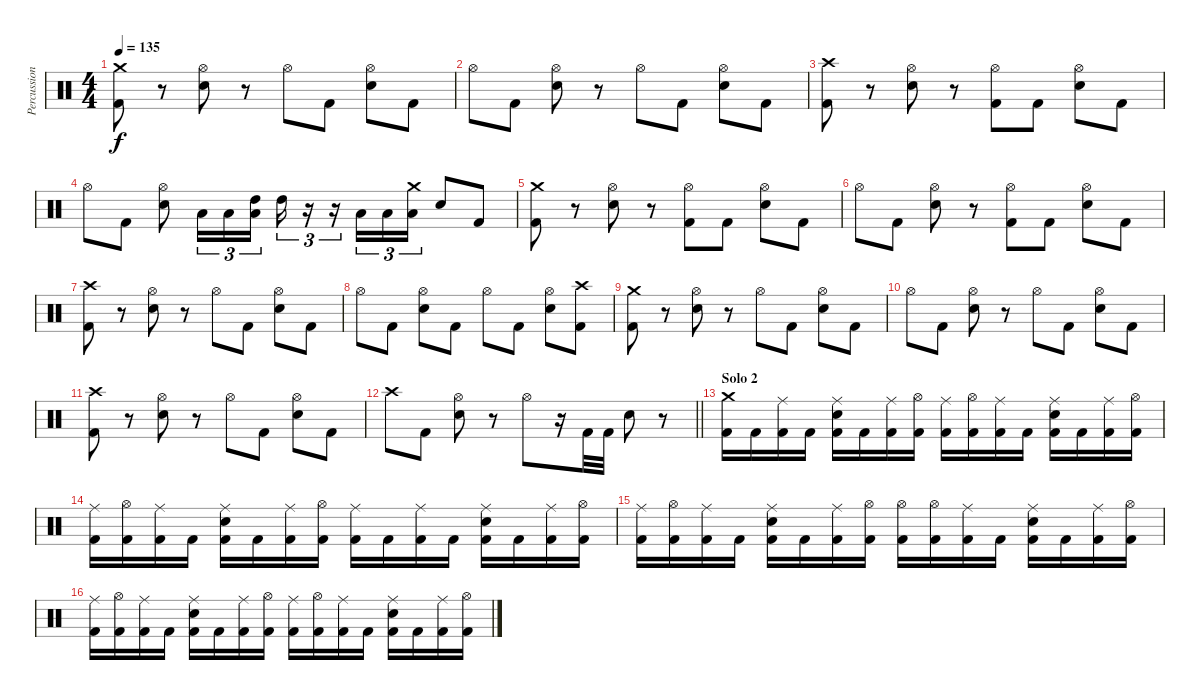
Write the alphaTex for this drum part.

\track ("Percussion" "Percussion") {instrument percussion}
\staff {score}
\articulation defaults
\ts (4 4)
\tempo 135
\clef neutral
\ks c
("Crash medium (hit)" "Kick (hit) 2").8{dy f} r.8 ("Hi-Hat (open)" "Electric Snare (hit)").8 r.8 "Hi-Hat (open)".8 "Kick (hit) 2".8 ("Hi-Hat (open)" "Electric Snare (hit)").8 "Kick (hit) 2".8 |
"Hi-Hat (open)".8 "Kick (hit) 2".8 ("Hi-Hat (open)" "Electric Snare (hit)").8 r.8 "Hi-Hat (open)".8 "Kick (hit) 2".8 ("Hi-Hat (open)" "Electric Snare (hit)").8 "Kick (hit) 2".8 |
("Crash high (hit)" "Kick (hit) 2").8 r.8 ("Hi-Hat (open)" "Electric Snare (hit)").8 r.8 ("Hi-Hat (open)" "Kick (hit) 2").8 "Kick (hit) 2".8 ("Hi-Hat (open)" "Electric Snare (hit)").8 "Kick (hit) 2".8 |
"Hi-Hat (open)".8 "Kick (hit) 2".8 ("Hi-Hat (open)" "Electric Snare (hit)").8 "Low Tom (hit)".16{tu (3 2)} "Low Tom (hit)".16{tu (3 2)} ("High Tom (hit)" "Low Tom (hit)").16{tu (3 2)} "High Tom (hit)".16{tu (3 2)} r.16{tu (3 2)} r.16{tu (3 2)} "Low Tom (hit)".16{tu (3 2)} "Low Tom (hit)".16{tu (3 2)} ("Crash medium (hit)" "Low Tom (hit)").16{tu (3 2)} "Electric Snare (hit)".8 "Kick (hit) 2".8 |
("Crash medium (hit)" "Kick (hit) 2").8 r.8 ("Hi-Hat (open)" "Electric Snare (hit)").8 r.8 ("Hi-Hat (open)" "Kick (hit) 2").8 "Kick (hit) 2".8 ("Hi-Hat (open)" "Electric Snare (hit)").8 "Kick (hit) 2".8 |
"Hi-Hat (open)".8 "Kick (hit) 2".8 ("Hi-Hat (open)" "Electric Snare (hit)").8 r.8 ("Hi-Hat (open)" "Kick (hit) 2").8 "Kick (hit) 2".8 ("Hi-Hat (open)" "Electric Snare (hit)").8 "Kick (hit) 2".8 |
("Crash high (hit)" "Kick (hit) 2").8 r.8 ("Hi-Hat (open)" "Electric Snare (hit)").8 r.8 "Hi-Hat (open)".8 "Kick (hit) 2".8 ("Hi-Hat (open)" "Electric Snare (hit)").8 "Kick (hit) 2".8 |
"Hi-Hat (open)".8 "Kick (hit) 2".8 ("Hi-Hat (open)" "Electric Snare (hit)").8 "Kick (hit) 2".8 "Hi-Hat (open)".8 "Kick (hit) 2".8 ("Hi-Hat (open)" "Electric Snare (hit)").8 ("Crash high (hit)" "Kick (hit) 2").8 |
("Crash medium (hit)" "Kick (hit) 2").8 r.8 ("Hi-Hat (open)" "Electric Snare (hit)").8 r.8 "Hi-Hat (open)".8 "Kick (hit) 2".8 ("Hi-Hat (open)" "Electric Snare (hit)").8 "Kick (hit) 2".8 |
"Hi-Hat (open)".8 "Kick (hit) 2".8 ("Hi-Hat (open)" "Electric Snare (hit)").8 r.8 "Hi-Hat (open)".8 "Kick (hit) 2".8 ("Hi-Hat (open)" "Electric Snare (hit)").8 "Kick (hit) 2".8 |
("Crash high (hit)" "Kick (hit) 2").8 r.8 ("Hi-Hat (open)" "Electric Snare (hit)").8 r.8 "Hi-Hat (open)".8 "Kick (hit) 2".8 ("Hi-Hat (open)" "Electric Snare (hit)").8 "Kick (hit) 2".8 |
\barLineRight lightlight "Crash high (hit)".8 "Kick (hit) 2".8
("Hi-Hat (open)" "Electric Snare (hit)").8 r.8 "Hi-Hat (open)".8 r.16 "Kick (hit) 2".32 "Kick (hit) 2".32 "Electric Snare (hit)".8 r.8 |
\section ("" "Solo 2")
("Crash medium (hit)" "Kick (hit) 2").16 "Kick (hit) 2".16 ("Ride (middle)" "Kick (hit) 2").16 "Kick (hit) 2".16 ("Ride (middle)" "Electric Snare (hit)" "Kick (hit) 2").16 "Kick (hit) 2".16 ("Ride (middle)" "Kick (hit) 2").16 ("Hi-Hat (open)" "Kick (hit) 2").16 ("Ride (middle)" "Kick (hit) 2").16 ("Hi-Hat (open)" "Kick (hit) 2").16 ("Ride (middle)" "Kick (hit) 2").16 "Kick (hit) 2".16 ("Ride (middle)" "Electric Snare (hit)" "Kick (hit) 2").16 "Kick (hit) 2".16 ("Ride (middle)" "Kick (hit) 2").16 ("Hi-Hat (open)" "Kick (hit) 2").16 |
("Ride (middle)" "Kick (hit) 2").16 ("Hi-Hat (open)" "Kick (hit) 2").16 ("Ride (middle)" "Kick (hit) 2").16 "Kick (hit) 2".16 ("Ride (middle)" "Electric Snare (hit)" "Kick (hit) 2").16 "Kick (hit) 2".16 ("Ride (middle)" "Kick (hit) 2").16 ("Hi-Hat (open)" "Kick (hit) 2").16 ("Ride (middle)" "Kick (hit) 2").16 "Kick (hit) 2".16 ("Ride (middle)" "Kick (hit) 2").16 "Kick (hit) 2".16 ("Ride (middle)" "Electric Snare (hit)" "Kick (hit) 2").16 "Kick (hit) 2".16 ("Ride (middle)" "Kick (hit) 2").16 ("Hi-Hat (open)" "Kick (hit) 2").16 |
("Ride (middle)" "Kick (hit) 2").16 ("Hi-Hat (open)" "Kick (hit) 2").16 ("Ride (middle)" "Kick (hit) 2").16 "Kick (hit) 2".16 ("Ride (middle)" "Electric Snare (hit)" "Kick (hit) 2").16 "Kick (hit) 2".16 ("Ride (middle)" "Kick (hit) 2").16 ("Hi-Hat (open)" "Kick (hit) 2").16 ("Hi-Hat (open)" "Kick (hit) 2").16 ("Hi-Hat (open)" "Kick (hit) 2").16 ("Ride (middle)" "Kick (hit) 2").16 "Kick (hit) 2".16 ("Ride (middle)" "Electric Snare (hit)" "Kick (hit) 2").16 "Kick (hit) 2".16 ("Ride (middle)" "Kick (hit) 2").16 ("Hi-Hat (open)" "Kick (hit) 2").16 |
("Ride (middle)" "Kick (hit) 2").16 ("Hi-Hat (open)" "Kick (hit) 2").16 ("Ride (middle)" "Kick (hit) 2").16 "Kick (hit) 2".16 ("Ride (middle)" "Electric Snare (hit)" "Kick (hit) 2").16 "Kick (hit) 2".16 ("Ride (middle)" "Kick (hit) 2").16 ("Hi-Hat (open)" "Kick (hit) 2").16 ("Ride (middle)" "Kick (hit) 2").16 ("Hi-Hat (open)" "Kick (hit) 2").16 ("Ride (middle)" "Kick (hit) 2").16 "Kick (hit) 2".16 ("Ride (middle)" "Electric Snare (hit)" "Kick (hit) 2").16 "Kick (hit) 2".16 ("Ride (middle)" "Kick (hit) 2").16 ("Hi-Hat (open)" "Kick (hit) 2").16
